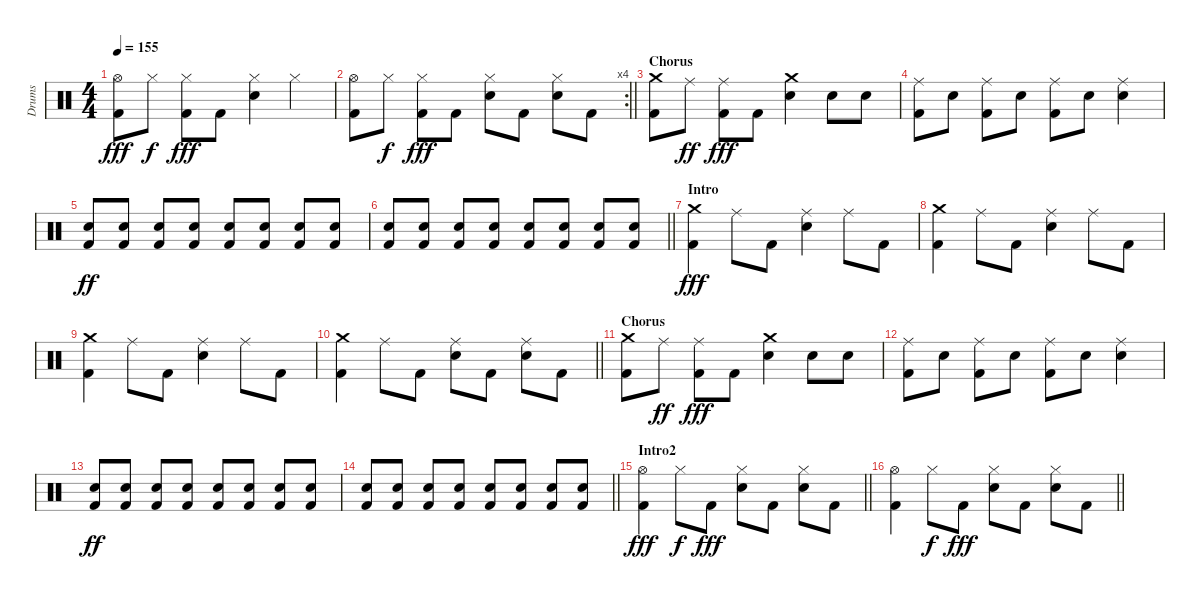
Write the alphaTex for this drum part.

\track ("Drums" "Drums") {instrument percussion}
\staff {score}
\articulation defaults
\ts (4 4)
\tempo 155
\clef neutral
\ks c
("Hi-Hat (open)" "Kick (hit) 2").8{dy fff} "Hi-Hat (closed)".8{dy f} ("Hi-Hat (closed)" "Kick (hit) 2").8{dy fff} "Kick (hit) 2".8 ("Hi-Hat (closed)" "Electric Snare (hit)").4 "Hi-Hat (closed)".4 |
\rc 4
\barLineRight lightlight
("Hi-Hat (open)" "Kick (hit) 2").8 "Hi-Hat (closed)".8{dy f} ("Hi-Hat (closed)" "Kick (hit) 2").8{dy fff} "Kick (hit) 2".8 ("Hi-Hat (closed)" "Electric Snare (hit)").8 "Kick (hit) 2".8 ("Hi-Hat (closed)" "Electric Snare (hit)").8 "Kick (hit) 2".8 |
\section ("" "Chorus")
("Crash medium (hit)" "Kick (hit) 2").8 "Ride (middle)".8{dy ff} ("Ride (middle)" "Kick (hit) 2").8{dy fff} "Kick (hit) 2".8 ("Crash medium (hit)" "Electric Snare (hit)").4 "Electric Snare (hit)".8 "Electric Snare (hit)".8 |
("Ride (middle)" "Kick (hit) 2").8 "Electric Snare (hit)".8 ("Ride (middle)" "Kick (hit) 2").8 "Electric Snare (hit)".8 ("Ride (middle)" "Kick (hit) 2").8 "Electric Snare (hit)".8 ("Ride (middle)" "Electric Snare (hit)").4 |
("Electric Snare (hit)" "Kick (hit) 2").8{dy ff} ("Electric Snare (hit)" "Kick (hit) 2").8 ("Electric Snare (hit)" "Kick (hit) 2").8 ("Electric Snare (hit)" "Kick (hit) 2").8 ("Electric Snare (hit)" "Kick (hit) 2").8 ("Electric Snare (hit)" "Kick (hit) 2").8 ("Electric Snare (hit)" "Kick (hit) 2").8 ("Electric Snare (hit)" "Kick (hit) 2").8 |
\barLineRight lightlight
("Electric Snare (hit)" "Kick (hit) 2").8 ("Electric Snare (hit)" "Kick (hit) 2").8 ("Electric Snare (hit)" "Kick (hit) 2").8 ("Electric Snare (hit)" "Kick (hit) 2").8 ("Electric Snare (hit)" "Kick (hit) 2").8 ("Electric Snare (hit)" "Kick (hit) 2").8 ("Electric Snare (hit)" "Kick (hit) 2").8 ("Electric Snare (hit)" "Kick (hit) 2").8 |
\section ("" "Intro")
("Crash medium (hit)" "Kick (hit) 2").4{dy fff} "Ride (middle)".8 "Kick (hit) 2".8 ("Ride (middle)" "Electric Snare (hit)").4 "Ride (middle)".8 "Kick (hit) 2".8 |
("Crash medium (hit)" "Kick (hit) 2").4 "Ride (middle)".8 "Kick (hit) 2".8 ("Ride (middle)" "Electric Snare (hit)").4 "Ride (middle)".8 "Kick (hit) 2".8 |
("Crash medium (hit)" "Kick (hit) 2").4 "Ride (middle)".8 "Kick (hit) 2".8 ("Ride (middle)" "Electric Snare (hit)").4 "Ride (middle)".8 "Kick (hit) 2".8 |
\barLineRight lightlight
("Crash medium (hit)" "Kick (hit) 2").4 "Ride (middle)".8 "Kick (hit) 2".8 ("Ride (middle)" "Electric Snare (hit)").8 "Kick (hit) 2".8 ("Ride (middle)" "Electric Snare (hit)").8 "Kick (hit) 2".8 |
\section ("" "Chorus")
("Crash medium (hit)" "Kick (hit) 2").8 "Ride (middle)".8{dy ff} ("Ride (middle)" "Kick (hit) 2").8{dy fff} "Kick (hit) 2".8 ("Crash medium (hit)" "Electric Snare (hit)").4 "Electric Snare (hit)".8 "Electric Snare (hit)".8 |
("Ride (middle)" "Kick (hit) 2").8 "Electric Snare (hit)".8 ("Ride (middle)" "Kick (hit) 2").8 "Electric Snare (hit)".8 ("Ride (middle)" "Kick (hit) 2").8 "Electric Snare (hit)".8 ("Ride (middle)" "Electric Snare (hit)").4 |
("Electric Snare (hit)" "Kick (hit) 2").8{dy ff} ("Electric Snare (hit)" "Kick (hit) 2").8 ("Electric Snare (hit)" "Kick (hit) 2").8 ("Electric Snare (hit)" "Kick (hit) 2").8 ("Electric Snare (hit)" "Kick (hit) 2").8 ("Electric Snare (hit)" "Kick (hit) 2").8 ("Electric Snare (hit)" "Kick (hit) 2").8 ("Electric Snare (hit)" "Kick (hit) 2").8 |
\barLineRight lightlight
("Electric Snare (hit)" "Kick (hit) 2").8 ("Electric Snare (hit)" "Kick (hit) 2").8 ("Electric Snare (hit)" "Kick (hit) 2").8 ("Electric Snare (hit)" "Kick (hit) 2").8 ("Electric Snare (hit)" "Kick (hit) 2").8 ("Electric Snare (hit)" "Kick (hit) 2").8 ("Electric Snare (hit)" "Kick (hit) 2").8 ("Electric Snare (hit)" "Kick (hit) 2").8 |
\section ("" "Intro2")
\barLineRight lightlight
("Hi-Hat (open)" "Kick (hit) 2").4{dy fff} "Hi-Hat (closed)".8{dy f} "Kick (hit) 2".8{dy fff} ("Hi-Hat (closed)" "Electric Snare (hit)").8 "Kick (hit) 2".8 ("Hi-Hat (closed)" "Electric Snare (hit)").8 "Kick (hit) 2".8 |
\barLineRight lightlight
("Hi-Hat (open)" "Kick (hit) 2").4 "Hi-Hat (closed)".8{dy f} "Kick (hit) 2".8{dy fff} ("Hi-Hat (closed)" "Electric Snare (hit)").8 "Kick (hit) 2".8 ("Hi-Hat (closed)" "Electric Snare (hit)").8 "Kick (hit) 2".8
